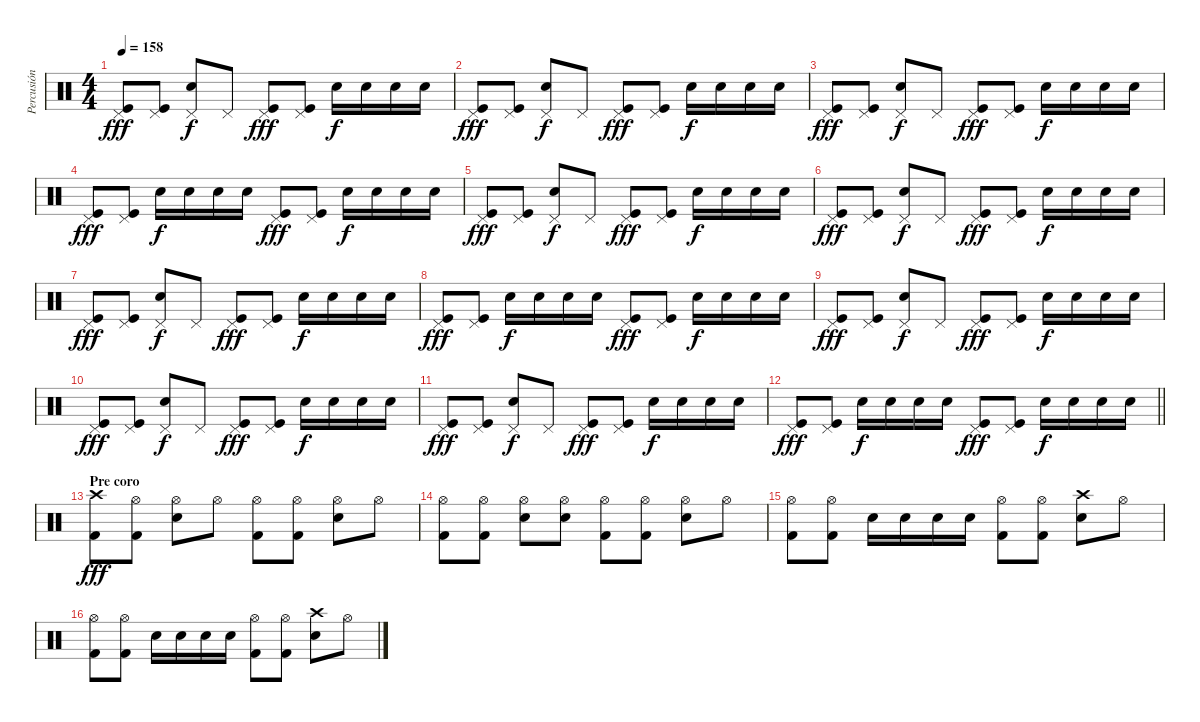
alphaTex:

\track ("Percusión" "Percusión") {instrument percussion}
\staff {score}
\articulation defaults
\ts (4 4)
\tempo 158
\clef neutral
\ks c
("Pedal Hi-Hat (hit)" "Kick (hit)").8{dy fff} ("Pedal Hi-Hat (hit)" "Kick (hit)").8 ("Pedal Hi-Hat (hit)" "Electric Snare (hit)").8{dy f} "Pedal Hi-Hat (hit)".8 ("Pedal Hi-Hat (hit)" "Kick (hit)").8{dy fff} ("Pedal Hi-Hat (hit)" "Kick (hit)").8 "Electric Snare (hit)".16{dy f} "Electric Snare (hit)".16 "Electric Snare (hit)".16 "Electric Snare (hit)".16 |
("Pedal Hi-Hat (hit)" "Kick (hit)").8{dy fff} ("Pedal Hi-Hat (hit)" "Kick (hit)").8 ("Pedal Hi-Hat (hit)" "Electric Snare (hit)").8{dy f} "Pedal Hi-Hat (hit)".8 ("Pedal Hi-Hat (hit)" "Kick (hit)").8{dy fff} ("Pedal Hi-Hat (hit)" "Kick (hit)").8 "Electric Snare (hit)".16{dy f} "Electric Snare (hit)".16 "Electric Snare (hit)".16 "Electric Snare (hit)".16 |
("Pedal Hi-Hat (hit)" "Kick (hit)").8{dy fff} ("Pedal Hi-Hat (hit)" "Kick (hit)").8 ("Pedal Hi-Hat (hit)" "Electric Snare (hit)").8{dy f} "Pedal Hi-Hat (hit)".8 ("Pedal Hi-Hat (hit)" "Kick (hit)").8{dy fff} ("Pedal Hi-Hat (hit)" "Kick (hit)").8 "Electric Snare (hit)".16{dy f} "Electric Snare (hit)".16 "Electric Snare (hit)".16 "Electric Snare (hit)".16 |
("Pedal Hi-Hat (hit)" "Kick (hit)").8{dy fff} ("Pedal Hi-Hat (hit)" "Kick (hit)").8 "Electric Snare (hit)".16{dy f} "Electric Snare (hit)".16 "Electric Snare (hit)".16 "Electric Snare (hit)".16 ("Pedal Hi-Hat (hit)" "Kick (hit)").8{dy fff} ("Pedal Hi-Hat (hit)" "Kick (hit)").8 "Electric Snare (hit)".16{dy f} "Electric Snare (hit)".16 "Electric Snare (hit)".16 "Electric Snare (hit)".16 |
("Pedal Hi-Hat (hit)" "Kick (hit)").8{dy fff} ("Pedal Hi-Hat (hit)" "Kick (hit)").8 ("Pedal Hi-Hat (hit)" "Electric Snare (hit)").8{dy f} "Pedal Hi-Hat (hit)".8 ("Pedal Hi-Hat (hit)" "Kick (hit)").8{dy fff} ("Pedal Hi-Hat (hit)" "Kick (hit)").8 "Electric Snare (hit)".16{dy f} "Electric Snare (hit)".16 "Electric Snare (hit)".16 "Electric Snare (hit)".16 |
("Pedal Hi-Hat (hit)" "Kick (hit)").8{dy fff} ("Pedal Hi-Hat (hit)" "Kick (hit)").8 ("Pedal Hi-Hat (hit)" "Electric Snare (hit)").8{dy f} "Pedal Hi-Hat (hit)".8 ("Pedal Hi-Hat (hit)" "Kick (hit)").8{dy fff} ("Pedal Hi-Hat (hit)" "Kick (hit)").8 "Electric Snare (hit)".16{dy f} "Electric Snare (hit)".16 "Electric Snare (hit)".16 "Electric Snare (hit)".16 |
("Pedal Hi-Hat (hit)" "Kick (hit)").8{dy fff} ("Pedal Hi-Hat (hit)" "Kick (hit)").8 ("Pedal Hi-Hat (hit)" "Electric Snare (hit)").8{dy f} "Pedal Hi-Hat (hit)".8 ("Pedal Hi-Hat (hit)" "Kick (hit)").8{dy fff} ("Pedal Hi-Hat (hit)" "Kick (hit)").8 "Electric Snare (hit)".16{dy f} "Electric Snare (hit)".16 "Electric Snare (hit)".16 "Electric Snare (hit)".16 |
("Pedal Hi-Hat (hit)" "Kick (hit)").8{dy fff} ("Pedal Hi-Hat (hit)" "Kick (hit)").8 "Electric Snare (hit)".16{dy f} "Electric Snare (hit)".16 "Electric Snare (hit)".16 "Electric Snare (hit)".16 ("Pedal Hi-Hat (hit)" "Kick (hit)").8{dy fff} ("Pedal Hi-Hat (hit)" "Kick (hit)").8 "Electric Snare (hit)".16{dy f} "Electric Snare (hit)".16 "Electric Snare (hit)".16 "Electric Snare (hit)".16 |
("Pedal Hi-Hat (hit)" "Kick (hit)").8{dy fff} ("Pedal Hi-Hat (hit)" "Kick (hit)").8 ("Pedal Hi-Hat (hit)" "Electric Snare (hit)").8{dy f} "Pedal Hi-Hat (hit)".8 ("Pedal Hi-Hat (hit)" "Kick (hit)").8{dy fff} ("Pedal Hi-Hat (hit)" "Kick (hit)").8 "Electric Snare (hit)".16{dy f} "Electric Snare (hit)".16 "Electric Snare (hit)".16 "Electric Snare (hit)".16 |
("Pedal Hi-Hat (hit)" "Kick (hit)").8{dy fff} ("Pedal Hi-Hat (hit)" "Kick (hit)").8 ("Pedal Hi-Hat (hit)" "Electric Snare (hit)").8{dy f} "Pedal Hi-Hat (hit)".8 ("Pedal Hi-Hat (hit)" "Kick (hit)").8{dy fff} ("Pedal Hi-Hat (hit)" "Kick (hit)").8 "Electric Snare (hit)".16{dy f} "Electric Snare (hit)".16 "Electric Snare (hit)".16 "Electric Snare (hit)".16 |
("Pedal Hi-Hat (hit)" "Kick (hit)").8{dy fff} ("Pedal Hi-Hat (hit)" "Kick (hit)").8 ("Pedal Hi-Hat (hit)" "Electric Snare (hit)").8{dy f} "Pedal Hi-Hat (hit)".8 ("Pedal Hi-Hat (hit)" "Kick (hit)").8{dy fff} ("Pedal Hi-Hat (hit)" "Kick (hit)").8 "Electric Snare (hit)".16{dy f} "Electric Snare (hit)".16 "Electric Snare (hit)".16 "Electric Snare (hit)".16 |
\barLineRight lightlight
("Pedal Hi-Hat (hit)" "Kick (hit)").8{dy fff} ("Pedal Hi-Hat (hit)" "Kick (hit)").8 "Electric Snare (hit)".16{dy f} "Electric Snare (hit)".16 "Electric Snare (hit)".16 "Electric Snare (hit)".16 ("Pedal Hi-Hat (hit)" "Kick (hit)").8{dy fff} ("Pedal Hi-Hat (hit)" "Kick (hit)").8 "Electric Snare (hit)".16{dy f} "Electric Snare (hit)".16 "Electric Snare (hit)".16 "Electric Snare (hit)".16 |
\section ("" "Pre coro")
("Crash high (hit)" "Kick (hit) 2").8{dy fff} ("Hi-Hat (open)" "Kick (hit) 2").8 ("Hi-Hat (open)" "Electric Snare (hit)").8 "Hi-Hat (open)".8 ("Hi-Hat (open)" "Kick (hit) 2").8 ("Hi-Hat (open)" "Kick (hit) 2").8 ("Hi-Hat (open)" "Electric Snare (hit)").8 "Hi-Hat (open)".8 |
("Hi-Hat (open)" "Kick (hit) 2").8 ("Hi-Hat (open)" "Kick (hit) 2").8 ("Hi-Hat (open)" "Electric Snare (hit)").8 ("Hi-Hat (open)" "Snare (hit)").8 ("Hi-Hat (open)" "Kick (hit) 2").8 ("Hi-Hat (open)" "Kick (hit) 2").8 ("Hi-Hat (open)" "Electric Snare (hit)").8 "Hi-Hat (open)".8 |
("Hi-Hat (open)" "Kick (hit) 2").8 ("Hi-Hat (open)" "Kick (hit) 2").8 "Electric Snare (hit)".16 "Electric Snare (hit)".16 "Electric Snare (hit)".16 "Electric Snare (hit)".16 ("Hi-Hat (open)" "Kick (hit) 2").8 ("Hi-Hat (open)" "Kick (hit) 2").8 ("Crash high (hit)" "Electric Snare (hit)").8 "Hi-Hat (open)".8 |
("Hi-Hat (open)" "Kick (hit) 2").8 ("Hi-Hat (open)" "Kick (hit) 2").8 "Electric Snare (hit)".16 "Electric Snare (hit)".16 "Electric Snare (hit)".16 "Electric Snare (hit)".16 ("Hi-Hat (open)" "Kick (hit) 2").8 ("Hi-Hat (open)" "Kick (hit) 2").8 ("Crash high (hit)" "Electric Snare (hit)").8 "Hi-Hat (open)".8
